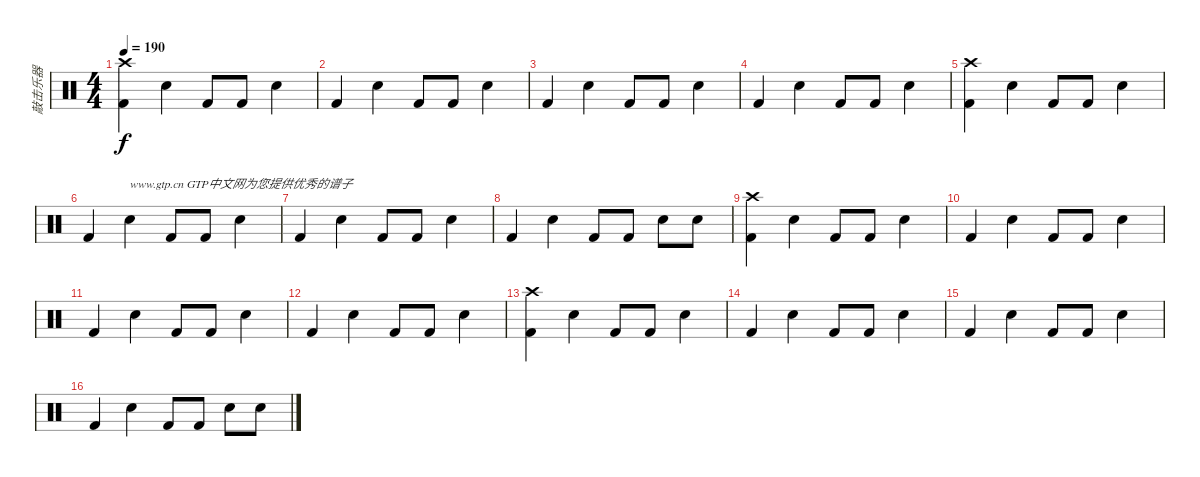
\track ("敲击乐器" "敲击乐器") {instrument percussion}
\staff {score}
\articulation defaults
\ts (4 4)
\tempo 190
\clef neutral
\ks c
("Kick (hit) 2" "Crash high (hit)").4{dy f} "Snare (hit) 2".4 "Kick (hit) 2".8 "Kick (hit) 2".8 "Snare (hit) 2".4 |
"Kick (hit) 2".4 "Snare (hit) 2".4 "Kick (hit) 2".8 "Kick (hit) 2".8 "Snare (hit) 2".4 |
"Kick (hit) 2".4 "Snare (hit) 2".4 "Kick (hit) 2".8 "Kick (hit) 2".8 "Snare (hit) 2".4 |
"Kick (hit) 2".4 "Snare (hit) 2".4 "Kick (hit) 2".8 "Kick (hit) 2".8 "Snare (hit) 2".4 |
("Kick (hit) 2" "Crash high (hit)").4 "Snare (hit) 2".4 "Kick (hit) 2".8 "Kick (hit) 2".8 "Snare (hit) 2".4 |
"Kick (hit) 2".4 "Snare (hit) 2".4{txt "www.gtp.cn GTP中文网为您提供优秀的谱子"} "Kick (hit) 2".8 "Kick (hit) 2".8 "Snare (hit) 2".4 |
"Kick (hit) 2".4 "Snare (hit) 2".4 "Kick (hit) 2".8 "Kick (hit) 2".8 "Snare (hit) 2".4 |
"Kick (hit) 2".4 "Snare (hit) 2".4 "Kick (hit) 2".8 "Kick (hit) 2".8 "Snare (hit) 2".8 "Snare (hit) 2".8 |
("Kick (hit) 2" "Crash high (hit)").4 "Snare (hit) 2".4 "Kick (hit) 2".8 "Kick (hit) 2".8 "Snare (hit) 2".4 |
"Kick (hit) 2".4 "Snare (hit) 2".4 "Kick (hit) 2".8 "Kick (hit) 2".8 "Snare (hit) 2".4 |
"Kick (hit) 2".4 "Snare (hit) 2".4 "Kick (hit) 2".8 "Kick (hit) 2".8 "Snare (hit) 2".4 |
"Kick (hit) 2".4 "Snare (hit) 2".4 "Kick (hit) 2".8 "Kick (hit) 2".8 "Snare (hit) 2".4 |
("Kick (hit) 2" "Crash high (hit)").4 "Snare (hit) 2".4 "Kick (hit) 2".8 "Kick (hit) 2".8 "Snare (hit) 2".4 |
"Kick (hit) 2".4 "Snare (hit) 2".4 "Kick (hit) 2".8 "Kick (hit) 2".8 "Snare (hit) 2".4 |
"Kick (hit) 2".4 "Snare (hit) 2".4 "Kick (hit) 2".8 "Kick (hit) 2".8 "Snare (hit) 2".4 |
"Kick (hit) 2".4 "Snare (hit) 2".4 "Kick (hit) 2".8 "Kick (hit) 2".8 "Snare (hit) 2".8 "Snare (hit) 2".8
